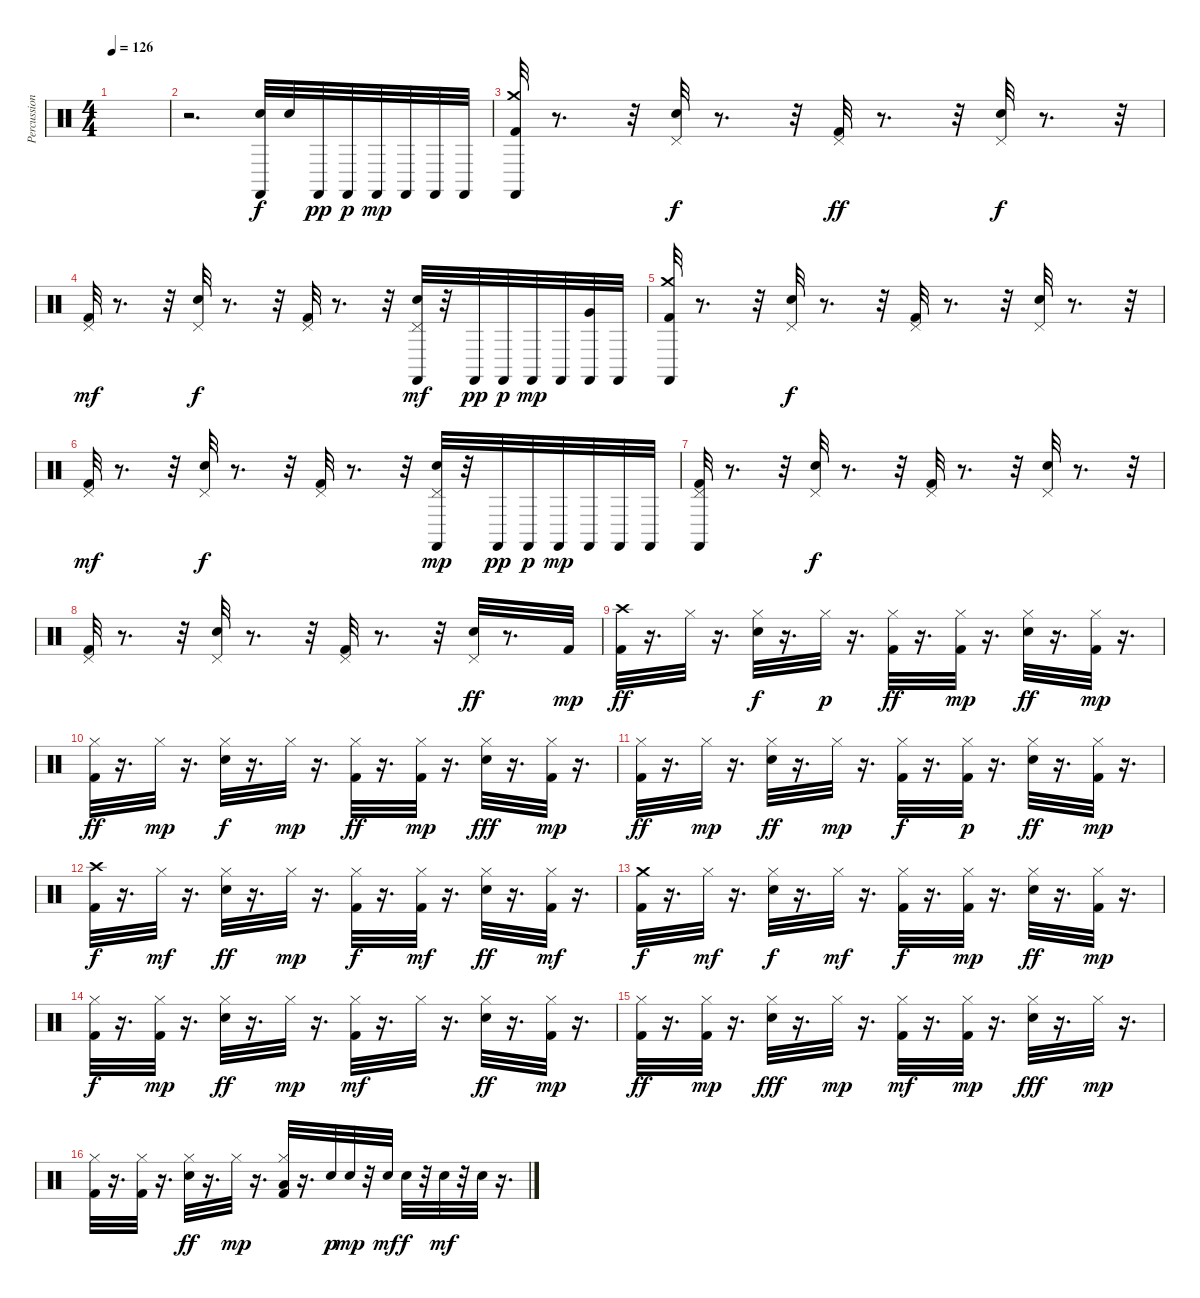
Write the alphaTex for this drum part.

\track ("Percussions" "Percussion") {instrument percussion}
\staff {score}
\articulation defaults
\ts (4 4)
\tempo 126
\clef neutral
\ks c
|
r.2{d} ("Electric Snare (hit)" "Castanets (hit)").32 "Electric Snare (hit)".32{dy f} "Castanets (hit)".32{dy pp} "Castanets (hit)".32{dy p} "Castanets (hit)".32{dy mp} "Castanets (hit)".32 "Castanets (hit)".32 "Castanets (hit)".32 |
("Kick (hit) 2" "Crash medium (hit)" "Castanets (hit)").32 r.8{d} r.32 ("Electric Snare (hit)" "Pedal Hi-Hat (hit)").32{dy f} r.8{d} r.32 ("Kick (hit) 2" "Pedal Hi-Hat (hit)").32{dy ff} r.8{d} r.32 ("Electric Snare (hit)" "Pedal Hi-Hat (hit)").32{dy f} r.8{d} r.32 |
("Kick (hit) 2" "Pedal Hi-Hat (hit)").32{dy mf} r.8{d} r.32 ("Electric Snare (hit)" "Pedal Hi-Hat (hit)").32{dy f} r.8{d} r.32 ("Kick (hit) 2" "Pedal Hi-Hat (hit)").32 r.8{d} r.32 ("Electric Snare (hit)" "Castanets (hit)" "Pedal Hi-Hat (hit)").32{dy mf} r.32 "Castanets (hit)".32{dy pp} "Castanets (hit)".32{dy p} "Castanets (hit)".32{dy mp} "Castanets (hit)".32 ("Very Low Tom (hit)" "Castanets (hit)").32 "Castanets (hit)".32 |
("Kick (hit) 2" "Crash medium (hit)" "Castanets (hit)").32 r.8{d} r.32 ("Electric Snare (hit)" "Pedal Hi-Hat (hit)").32{dy f} r.8{d} r.32 ("Kick (hit) 2" "Pedal Hi-Hat (hit)").32 r.8{d} r.32 ("Electric Snare (hit)" "Pedal Hi-Hat (hit)").32 r.8{d} r.32 |
("Kick (hit) 2" "Pedal Hi-Hat (hit)").32{dy mf} r.8{d} r.32 ("Electric Snare (hit)" "Pedal Hi-Hat (hit)").32{dy f} r.8{d} r.32 ("Kick (hit) 2" "Pedal Hi-Hat (hit)").32 r.8{d} r.32 ("Electric Snare (hit)" "Castanets (hit)" "Pedal Hi-Hat (hit)").32{dy mp} r.32 "Castanets (hit)".32{dy pp} "Castanets (hit)".32{dy p} "Castanets (hit)".32{dy mp} "Castanets (hit)".32 "Castanets (hit)".32 "Castanets (hit)".32 |
("Kick (hit) 2" "Pedal Hi-Hat (hit)" "Castanets (hit)").32 r.8{d} r.32 ("Electric Snare (hit)" "Pedal Hi-Hat (hit)").32{dy f} r.8{d} r.32 ("Kick (hit) 2" "Pedal Hi-Hat (hit)").32 r.8{d} r.32 ("Electric Snare (hit)" "Pedal Hi-Hat (hit)").32 r.8{d} r.32 |
("Kick (hit) 2" "Pedal Hi-Hat (hit)").32 r.8{d} r.32 ("Electric Snare (hit)" "Pedal Hi-Hat (hit)").32 r.8{d} r.32 ("Kick (hit) 2" "Pedal Hi-Hat (hit)").32 r.8{d} r.32 ("Electric Snare (hit)" "Pedal Hi-Hat (hit)").32{dy ff} r.8{d} "Kick (hit) 2".32{dy mp} |
("Kick (hit) 2" "Crash high (hit)").32{dy ff} r.16{d} "Hi-Hat (closed)".32 r.16{d} ("Electric Snare (hit)" "Hi-Hat (closed)").32{dy f} r.16{d} "Hi-Hat (closed)".32{dy p} r.16{d} ("Kick (hit) 2" "Hi-Hat (closed)").32{dy ff} r.16{d} ("Kick (hit) 2" "Hi-Hat (closed)").32{dy mp} r.16{d} ("Electric Snare (hit)" "Hi-Hat (closed)").32{dy ff} r.16{d} ("Kick (hit) 2" "Hi-Hat (closed)").32{dy mp} r.16{d} |
("Kick (hit) 2" "Hi-Hat (closed)").32{dy ff} r.16{d} "Hi-Hat (closed)".32{dy mp} r.16{d} ("Electric Snare (hit)" "Hi-Hat (closed)").32{dy f} r.16{d} "Hi-Hat (closed)".32{dy mp} r.16{d} ("Kick (hit) 2" "Hi-Hat (closed)").32{dy ff} r.16{d} ("Kick (hit) 2" "Hi-Hat (closed)").32{dy mp} r.16{d} ("Electric Snare (hit)" "Hi-Hat (closed)").32{dy fff} r.16{d} ("Kick (hit) 2" "Hi-Hat (closed)").32{dy mp} r.16{d} |
("Kick (hit) 2" "Hi-Hat (closed)").32{dy ff} r.16{d} "Hi-Hat (closed)".32{dy mp} r.16{d} ("Electric Snare (hit)" "Hi-Hat (closed)").32{dy ff} r.16{d} "Hi-Hat (closed)".32{dy mp} r.16{d} ("Kick (hit) 2" "Hi-Hat (closed)").32{dy f} r.16{d} ("Kick (hit) 2" "Hi-Hat (closed)").32{dy p} r.16{d} ("Electric Snare (hit)" "Hi-Hat (closed)").32{dy ff} r.16{d} ("Kick (hit) 2" "Hi-Hat (closed)").32{dy mp} r.16{d} |
("Kick (hit) 2" "Crash high (hit)").32{dy f} r.16{d} "Hi-Hat (closed)".32{dy mf} r.16{d} ("Electric Snare (hit)" "Hi-Hat (closed)").32{dy ff} r.16{d} "Hi-Hat (closed)".32{dy mp} r.16{d} ("Kick (hit) 2" "Hi-Hat (closed)").32{dy f} r.16{d} ("Kick (hit) 2" "Hi-Hat (closed)").32{dy mf} r.16{d} ("Electric Snare (hit)" "Hi-Hat (closed)").32{dy ff} r.16{d} ("Kick (hit) 2" "Hi-Hat (closed)").32{dy mf} r.16{d} |
("Kick (hit) 2" "Crash medium (hit)").32{dy f} r.16{d} "Hi-Hat (closed)".32{dy mf} r.16{d} ("Electric Snare (hit)" "Hi-Hat (closed)").32{dy f} r.16{d} "Hi-Hat (closed)".32{dy mf} r.16{d} ("Kick (hit) 2" "Hi-Hat (closed)").32{dy f} r.16{d} ("Kick (hit) 2" "Hi-Hat (closed)").32{dy mp} r.16{d} ("Electric Snare (hit)" "Hi-Hat (closed)").32{dy ff} r.16{d} ("Kick (hit) 2" "Hi-Hat (closed)").32{dy mp} r.16{d} |
("Kick (hit) 2" "Hi-Hat (closed)").32{dy f} r.16{d} ("Kick (hit) 2" "Hi-Hat (closed)").32{dy mp} r.16{d} ("Electric Snare (hit)" "Hi-Hat (closed)").32{dy ff} r.16{d} "Hi-Hat (closed)".32{dy mp} r.16{d} ("Kick (hit) 2" "Hi-Hat (closed)").32{dy mf} r.16{d} "Hi-Hat (closed)".32 r.16{d} ("Electric Snare (hit)" "Hi-Hat (closed)").32{dy ff} r.16{d} ("Kick (hit) 2" "Hi-Hat (closed)").32{dy mp} r.16{d} |
("Kick (hit) 2" "Hi-Hat (closed)").32{dy ff} r.16{d} ("Kick (hit) 2" "Hi-Hat (closed)").32{dy mp} r.16{d} ("Electric Snare (hit)" "Hi-Hat (closed)").32{dy fff} r.16{d} "Hi-Hat (closed)".32{dy mp} r.16{d} ("Kick (hit) 2" "Hi-Hat (closed)").32{dy mf} r.16{d} ("Kick (hit) 2" "Hi-Hat (closed)").32{dy mp} r.16{d} ("Electric Snare (hit)" "Hi-Hat (closed)").32{dy fff} r.16{d} "Hi-Hat (closed)".32{dy mp} r.16{d} |
("Kick (hit) 2" "Hi-Hat (closed)").32 r.16{d} ("Kick (hit) 2" "Hi-Hat (closed)").32 r.16{d} ("Electric Snare (hit)" "Hi-Hat (closed)").32{dy ff} r.16{d} "Hi-Hat (closed)".32{dy mp} r.16{d} ("Kick (hit) 2" "Hi-Hat (closed)" "Low Tom (hit)").32 r.16{d} "Electric Snare (hit)".32{dy p} "Electric Snare (hit)".32{dy mp} r.32 "Electric Snare (hit)".32{dy mf} "Electric Snare (hit)".32{dy f} r.32 "Electric Snare (hit)".32{dy mf} r.32 "Electric Snare (hit)".32 r.16{d}
